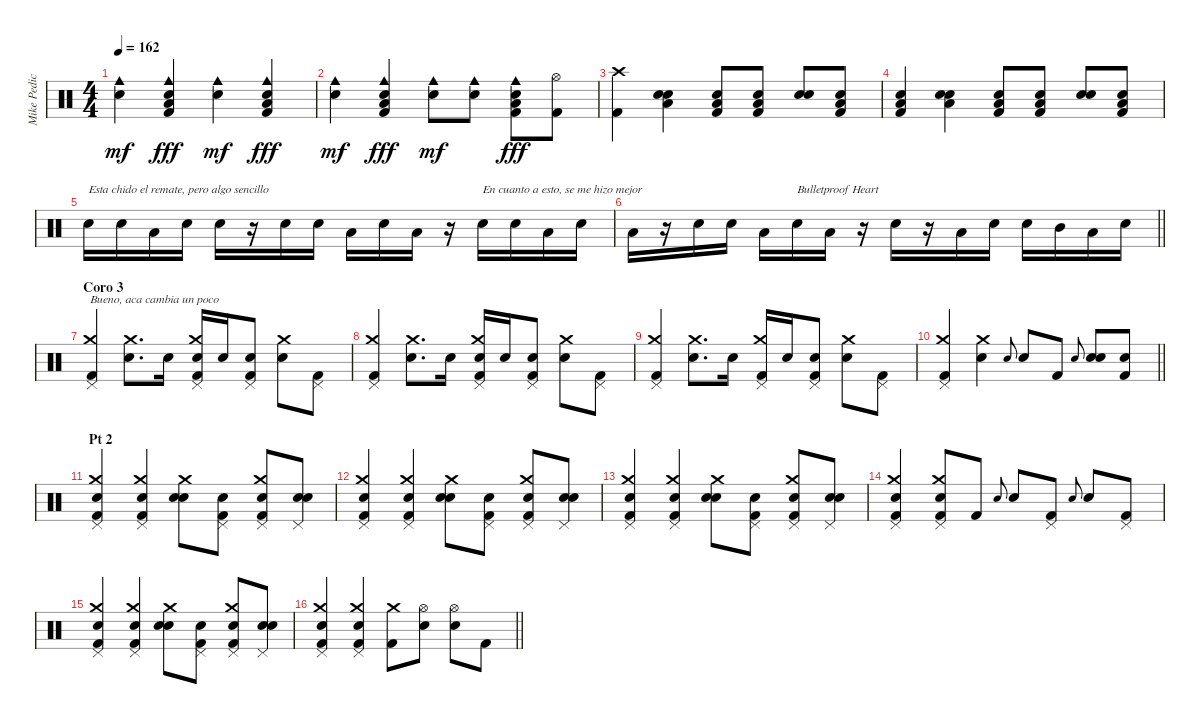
\track ("Mike Pedicone [Drums]" "Mike Pedic") {instrument percussion}
\staff
\articulation defaults
\ts (4 4)
\tempo 162
\clef neutral
\ks c
("Hand Clap (hit)" "Cowbell medium (hit)").4{dy mf} ("Cowbell medium (hit)" "Low Floor Tom (hit)" "Hand Clap (hit)" "Kick (hit) 2").4{dy fff} ("Hand Clap (hit)" "Cowbell medium (hit)").4{dy mf} ("Hand Clap (hit)" "Cowbell medium (hit)" "Low Floor Tom (hit)" "Kick (hit) 2").4{dy fff} |
("Hand Clap (hit)" "Cowbell medium (hit)").4{dy mf} ("Hand Clap (hit)" "Cowbell medium (hit)" "Low Floor Tom (hit)" "Kick (hit) 2").4{dy fff} ("Hand Clap (hit)" "Cowbell medium (hit)").8{dy mf} ("Hand Clap (hit)" "Cowbell medium (hit)").8 ("Hand Clap (hit)" "Cowbell medium (hit)" "Low Floor Tom (hit)" "Kick (hit) 2").8{dy fff} ("Hi-Hat (open)" "Kick (hit) 2").8 |
("Crash high (hit)" "Kick (hit) 2").4 ("Electric Snare (hit)" "Low Floor Tom (hit)" "Hand Clap (hit)").4 ("Low Floor Tom (hit)" "Hand Clap (hit)" "Kick (hit) 2").8 ("Low Floor Tom (hit)" "Hand Clap (hit)" "Kick (hit) 2").8 ("Electric Snare (hit)" "Hand Clap (hit)").8 ("Low Floor Tom (hit)" "Hand Clap (hit)" "Kick (hit) 2").8 |
("Low Floor Tom (hit)" "Hand Clap (hit)" "Kick (hit) 2").4 ("Electric Snare (hit)" "Low Floor Tom (hit)" "Hand Clap (hit)").4 ("Low Floor Tom (hit)" "Hand Clap (hit)" "Kick (hit) 2").8 ("Low Floor Tom (hit)" "Hand Clap (hit)" "Kick (hit) 2").8 ("Electric Snare (hit)" "Hand Clap (hit)").8 ("Low Floor Tom (hit)" "Hand Clap (hit)" "Kick (hit) 2").8 |
"Electric Snare (hit)".16{txt "Esta chido el remate, pero algo sencillo"} "Electric Snare (hit)".16 "Low Tom (hit)".16 "Electric Snare (hit)".16 "Electric Snare (hit)".16 r.16 "Electric Snare (hit)".16 "Electric Snare (hit)".16 "Low Tom (hit)".16 "Electric Snare (hit)".16 "Low Tom (hit)".16 r.16 "Electric Snare (hit)".16{txt "En cuanto a esto, se me hizo mejor"} "Electric Snare (hit)".16 "Low Tom (hit)".16 "Electric Snare (hit)".16 |
\barLineRight lightlight "Low Tom (hit)".16
r.16 "Electric Snare (hit)".16 "Electric Snare (hit)".16 "Low Tom (hit)".16 "Electric Snare (hit)".16{txt "Bulletproof Heart"} "Low Tom (hit)".16 r.16 "Electric Snare (hit)".16 r.16 "Low Tom (hit)".16 "Electric Snare (hit)".16 "Electric Snare (hit)".16 "Mid Tom (hit)".16 "Low Tom (hit)".16 "Electric Snare (hit)".16 |
\section ("" "Coro 3")
("Crash medium (hit)" "Pedal Hi-Hat (hit)" "Kick (hit) 2").4{txt "Bueno, aca cambia un poco"} ("Crash medium (hit)" "Electric Snare (hit)").8{d} "Electric Snare (hit)".16 ("Crash medium (hit)" "Electric Snare (hit)" "Pedal Hi-Hat (hit)" "Kick (hit) 2").16 "Electric Snare (hit)".16 ("Electric Snare (hit)" "Pedal Hi-Hat (hit)" "Kick (hit) 2").8 ("Crash medium (hit)" "Electric Snare (hit)").8 ("Pedal Hi-Hat (hit)" "Kick (hit) 2").8 |
("Crash medium (hit)" "Pedal Hi-Hat (hit)" "Kick (hit) 2").4 ("Crash medium (hit)" "Electric Snare (hit)").8{d} "Electric Snare (hit)".16 ("Crash medium (hit)" "Electric Snare (hit)" "Pedal Hi-Hat (hit)" "Kick (hit) 2").16 "Electric Snare (hit)".16 ("Electric Snare (hit)" "Pedal Hi-Hat (hit)" "Kick (hit) 2").8 ("Crash medium (hit)" "Electric Snare (hit)").8 ("Pedal Hi-Hat (hit)" "Kick (hit) 2").8 |
("Crash medium (hit)" "Pedal Hi-Hat (hit)" "Kick (hit) 2").4 ("Crash medium (hit)" "Electric Snare (hit)").8{d} "Electric Snare (hit)".16 ("Crash medium (hit)" "Pedal Hi-Hat (hit)" "Kick (hit) 2").16 "Electric Snare (hit)".16 ("Electric Snare (hit)" "Pedal Hi-Hat (hit)" "Kick (hit) 2").8 ("Crash medium (hit)" "Electric Snare (hit)").8 ("Pedal Hi-Hat (hit)" "Kick (hit) 2").8 |
\barLineRight lightlight
("Crash medium (hit)" "Pedal Hi-Hat (hit)" "Kick (hit) 2").4 ("Crash medium (hit)" "Electric Snare (hit)").4 "Electric Snare (hit)".8{gr onbeat} "Electric Snare (hit)".8 "Kick (hit) 2".8 "Electric Snare (hit)".8{gr onbeat} ("Electric Snare (hit)" "Hand Clap (hit)").8 ("Hand Clap (hit)" "Kick (hit) 2").8 |
\section ("" "Pt 2")
("Crash medium (hit)" "Hand Clap (hit)" "Pedal Hi-Hat (hit)" "Kick (hit) 2").4 ("Crash medium (hit)" "Hand Clap (hit)" "Pedal Hi-Hat (hit)" "Kick (hit) 2").4 ("Crash medium (hit)" "Hand Clap (hit)" "Electric Snare (hit)").8 ("Hand Clap (hit)" "Pedal Hi-Hat (hit)" "Kick (hit) 2").8 ("Crash medium (hit)" "Hand Clap (hit)" "Pedal Hi-Hat (hit)" "Kick (hit) 2").8 ("Hand Clap (hit)" "Electric Snare (hit)" "Pedal Hi-Hat (hit)").8 |
("Crash medium (hit)" "Hand Clap (hit)" "Pedal Hi-Hat (hit)" "Kick (hit) 2").4 ("Crash medium (hit)" "Hand Clap (hit)" "Pedal Hi-Hat (hit)" "Kick (hit) 2").4 ("Crash medium (hit)" "Hand Clap (hit)" "Electric Snare (hit)").8 ("Hand Clap (hit)" "Pedal Hi-Hat (hit)" "Kick (hit) 2").8 ("Crash medium (hit)" "Hand Clap (hit)" "Pedal Hi-Hat (hit)" "Kick (hit) 2").8 ("Hand Clap (hit)" "Electric Snare (hit)" "Pedal Hi-Hat (hit)").8 |
("Crash medium (hit)" "Hand Clap (hit)" "Pedal Hi-Hat (hit)" "Kick (hit) 2").4 ("Crash medium (hit)" "Hand Clap (hit)" "Pedal Hi-Hat (hit)" "Kick (hit) 2").4 ("Crash medium (hit)" "Hand Clap (hit)" "Electric Snare (hit)").8 ("Hand Clap (hit)" "Pedal Hi-Hat (hit)" "Kick (hit) 2").8 ("Crash medium (hit)" "Hand Clap (hit)" "Pedal Hi-Hat (hit)" "Kick (hit) 2").8 ("Hand Clap (hit)" "Electric Snare (hit)" "Pedal Hi-Hat (hit)").8 |
("Crash medium (hit)" "Hand Clap (hit)" "Pedal Hi-Hat (hit)" "Kick (hit) 2").4 ("Crash medium (hit)" "Hand Clap (hit)" "Pedal Hi-Hat (hit)" "Kick (hit) 2").8 "Kick (hit) 2".8 "Electric Snare (hit)".8{gr onbeat} "Electric Snare (hit)".8 ("Pedal Hi-Hat (hit)" "Kick (hit) 2").8 "Electric Snare (hit)".8{gr onbeat} "Electric Snare (hit)".8 ("Pedal Hi-Hat (hit)" "Kick (hit) 2").8 |
("Crash medium (hit)" "Hand Clap (hit)" "Pedal Hi-Hat (hit)" "Kick (hit) 2").4 ("Crash medium (hit)" "Hand Clap (hit)" "Pedal Hi-Hat (hit)" "Kick (hit) 2").4 ("Crash medium (hit)" "Hand Clap (hit)" "Electric Snare (hit)").8 ("Hand Clap (hit)" "Pedal Hi-Hat (hit)" "Kick (hit) 2").8 ("Crash medium (hit)" "Hand Clap (hit)" "Pedal Hi-Hat (hit)" "Kick (hit) 2").8 ("Hand Clap (hit)" "Electric Snare (hit)" "Pedal Hi-Hat (hit)").8 |
\barLineRight lightlight
("Crash medium (hit)" "Hand Clap (hit)" "Pedal Hi-Hat (hit)" "Kick (hit) 2").4 ("Crash medium (hit)" "Hand Clap (hit)" "Pedal Hi-Hat (hit)" "Kick (hit) 2").4 ("Crash medium (hit)" "Kick (hit) 2").8 ("Hi-Hat (open)" "Electric Snare (hit)").8 ("Hi-Hat (open)" "Electric Snare (hit)").8 "Kick (hit) 2".8
